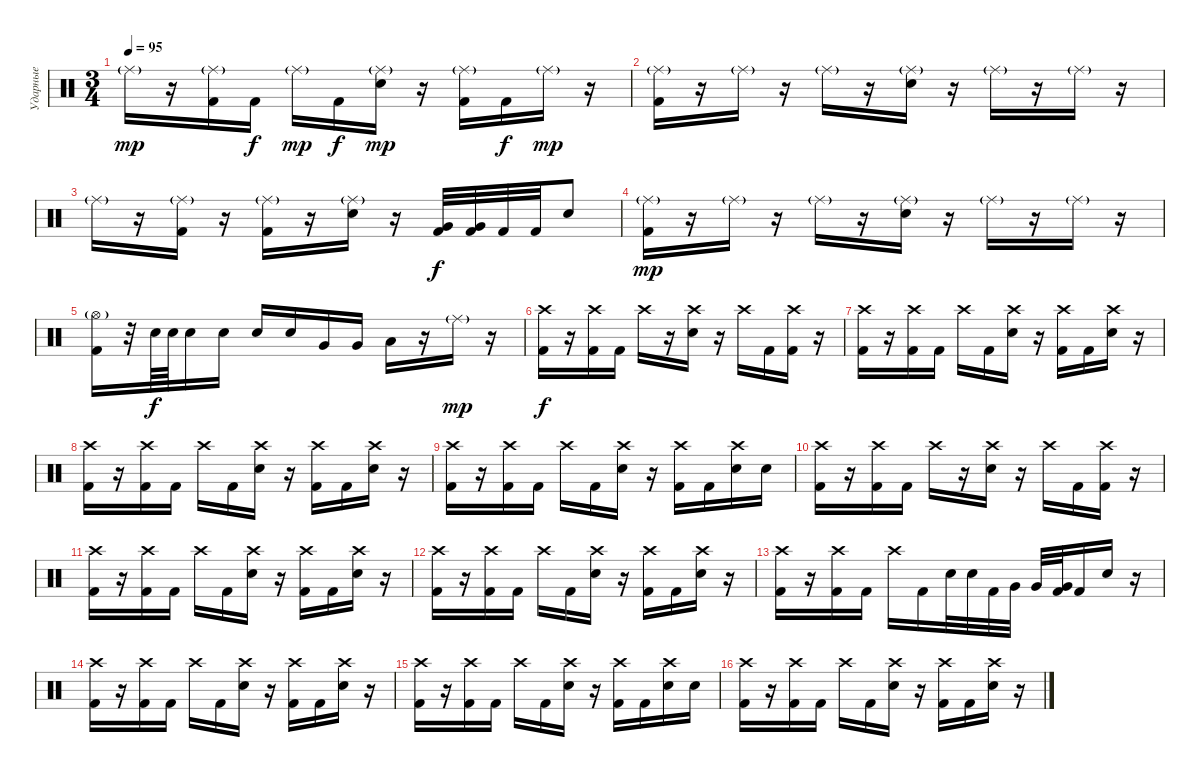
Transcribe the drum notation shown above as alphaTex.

\track ("Ударные" "Ударные") {instrument percussion}
\staff {score}
\articulation defaults
\ts (3 4)
\tempo 95
\clef neutral
\ks c "Ride (middle)"{g}.16{dy mp}
r.16 ("Ride (middle)"{g} "Kick (hit) 2").16 "Kick (hit) 2".16{dy f} "Ride (middle)"{g}.16{dy mp} "Kick (hit) 2".16{dy f} ("Ride (middle)"{g} "Electric Snare (hit)").16{dy mp} r.16 ("Ride (middle)"{g} "Kick (hit) 2").16 "Kick (hit) 2".16{dy f} "Ride (middle)"{g}.16{dy mp} r.16 |
("Ride (middle)"{g} "Kick (hit) 2").16 r.16 "Ride (middle)"{g}.16 r.16 "Ride (middle)"{g}.16 r.16 ("Ride (middle)"{g} "Electric Snare (hit)").16 r.16 "Ride (middle)"{g}.16 r.16 "Ride (middle)"{g}.16 r.16 |
"Ride (middle)"{g}.16 r.16 ("Ride (middle)"{g} "Kick (hit) 2").16 r.16 ("Ride (middle)"{g} "Kick (hit) 2").16 r.16 ("Ride (middle)"{g} "Electric Snare (hit)").16 r.16 ("Very Low Tom (hit)" "Kick (hit) 2").32{dy f} ("Very Low Tom (hit)" "Kick (hit) 2").32 "Kick (hit) 2".32 "Kick (hit) 2".32 "Electric Snare (hit)".8 |
("Ride (middle)"{g} "Kick (hit) 2").16{dy mp} r.16 "Ride (middle)"{g}.16 r.16 "Ride (middle)"{g}.16 r.16 ("Ride (middle)"{g} "Electric Snare (hit)").16 r.16 "Ride (middle)"{g}.16 r.16 "Ride (middle)"{g}.16 r.16 |
("Hi-Hat (open)"{g} "Kick (hit) 2").16 r.32 "Electric Snare (hit)".64{dy f} "Electric Snare (hit)".64 "Electric Snare (hit)".16 "Electric Snare (hit)".16 "Electric Snare (hit)".16 "Electric Snare (hit)".16 "Very Low Tom (hit)".16 "Very Low Tom (hit)".16 "Low Floor Tom (hit)".16 r.16 "Ride (middle)"{g}.16{dy mp} r.16 |
("Crash high (hit)" "Kick (hit) 2").16{dy f} r.16 ("Crash high (hit)" "Kick (hit) 2").16 "Kick (hit) 2".16 "Crash high (hit)".16 r.16 ("Crash high (hit)" "Electric Snare (hit)").16 r.16 "Crash high (hit)".16 "Kick (hit) 2".16 ("Crash high (hit)" "Kick (hit) 2").16 r.16 |
("Crash high (hit)" "Kick (hit) 2").16 r.16 ("Crash high (hit)" "Kick (hit) 2").16 "Kick (hit) 2".16 "Crash high (hit)".16 "Kick (hit) 2".16 ("Crash high (hit)" "Electric Snare (hit)").16 r.16 ("Crash high (hit)" "Kick (hit) 2").16 "Kick (hit) 2".16 ("Crash high (hit)" "Electric Snare (hit)").16 r.16 |
("Crash high (hit)" "Kick (hit) 2").16 r.16 ("Crash high (hit)" "Kick (hit) 2").16 "Kick (hit) 2".16 "Crash high (hit)".16 "Kick (hit) 2".16 ("Crash high (hit)" "Electric Snare (hit)").16 r.16 ("Crash high (hit)" "Kick (hit) 2").16 "Kick (hit) 2".16 ("Crash high (hit)" "Electric Snare (hit)").16 r.16 |
("Crash high (hit)" "Kick (hit) 2").16 r.16 ("Crash high (hit)" "Kick (hit) 2").16 "Kick (hit) 2".16 "Crash high (hit)".16 "Kick (hit) 2".16 ("Crash high (hit)" "Electric Snare (hit)").16 r.16 ("Crash high (hit)" "Kick (hit) 2").16 "Kick (hit) 2".16 ("Crash high (hit)" "Electric Snare (hit)").16 "Electric Snare (hit)".16 |
("Crash high (hit)" "Kick (hit) 2").16 r.16 ("Crash high (hit)" "Kick (hit) 2").16 "Kick (hit) 2".16 "Crash high (hit)".16 r.16 ("Crash high (hit)" "Electric Snare (hit)").16 r.16 "Crash high (hit)".16 "Kick (hit) 2".16 ("Crash high (hit)" "Kick (hit) 2").16 r.16 |
("Crash high (hit)" "Kick (hit) 2").16 r.16 ("Crash high (hit)" "Kick (hit) 2").16 "Kick (hit) 2".16 "Crash high (hit)".16 "Kick (hit) 2".16 ("Crash high (hit)" "Electric Snare (hit)").16 r.16 ("Crash high (hit)" "Kick (hit) 2").16 "Kick (hit) 2".16 ("Crash high (hit)" "Electric Snare (hit)").16 r.16 |
("Crash high (hit)" "Kick (hit) 2").16 r.16 ("Crash high (hit)" "Kick (hit) 2").16 "Kick (hit) 2".16 "Crash high (hit)".16 "Kick (hit) 2".16 ("Crash high (hit)" "Electric Snare (hit)").16 r.16 ("Crash high (hit)" "Kick (hit) 2").16 "Kick (hit) 2".16 ("Crash high (hit)" "Electric Snare (hit)").16 r.16 |
("Crash high (hit)" "Kick (hit) 2").16 r.16 ("Crash high (hit)" "Kick (hit) 2").16 "Kick (hit) 2".16 "Crash high (hit)".16 "Kick (hit) 2".16 "Electric Snare (hit)".32 "Electric Snare (hit)".32 "Kick (hit) 2".32 "Very Low Tom (hit)".32 "Very Low Tom (hit)".32 ("Very Low Tom (hit)" "Kick (hit) 2").32 "Kick (hit) 2".16 "Electric Snare (hit)".16 r.16 |
("Crash high (hit)" "Kick (hit) 2").16 r.16 ("Crash high (hit)" "Kick (hit) 2").16 "Kick (hit) 2".16 "Crash high (hit)".16 "Kick (hit) 2".16 ("Crash high (hit)" "Electric Snare (hit)").16 r.16 ("Crash high (hit)" "Kick (hit) 2").16 "Kick (hit) 2".16 ("Crash high (hit)" "Electric Snare (hit)").16 r.16 |
("Crash high (hit)" "Kick (hit) 2").16 r.16 ("Crash high (hit)" "Kick (hit) 2").16 "Kick (hit) 2".16 "Crash high (hit)".16 "Kick (hit) 2".16 ("Crash high (hit)" "Electric Snare (hit)").16 r.16 ("Crash high (hit)" "Kick (hit) 2").16 "Kick (hit) 2".16 ("Crash high (hit)" "Electric Snare (hit)").16 "Electric Snare (hit)".16 |
("Crash high (hit)" "Kick (hit) 2").16 r.16 ("Crash high (hit)" "Kick (hit) 2").16 "Kick (hit) 2".16 "Crash high (hit)".16 "Kick (hit) 2".16 ("Crash high (hit)" "Electric Snare (hit)").16 r.16 ("Crash high (hit)" "Kick (hit) 2").16 "Kick (hit) 2".16 ("Crash high (hit)" "Electric Snare (hit)").16 r.16
